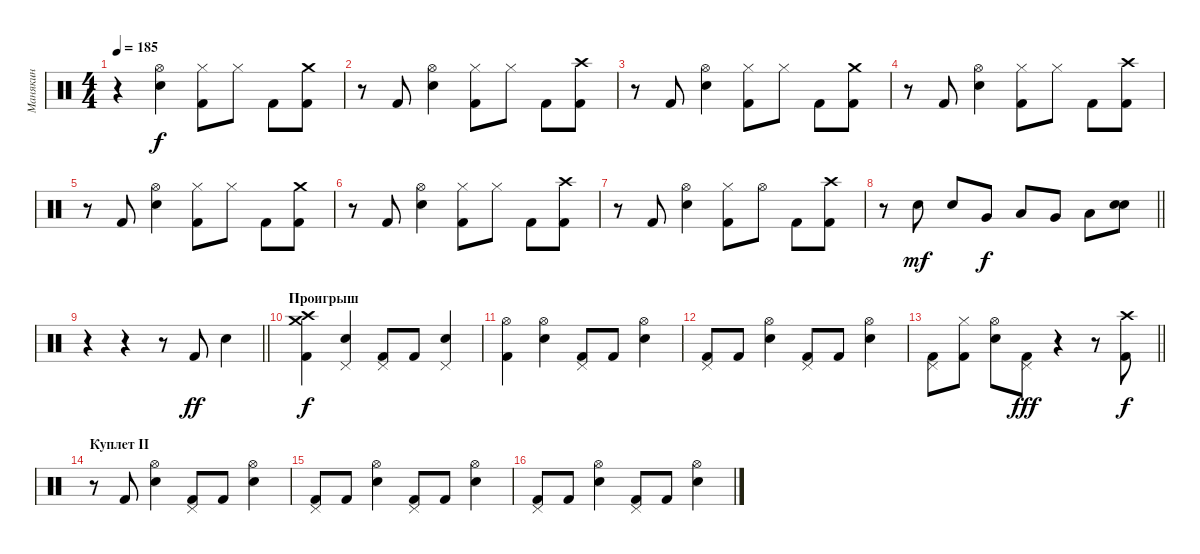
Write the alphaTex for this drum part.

\track ("Манякин" "Манякин") {instrument percussion}
\staff {score}
\articulation defaults
\ts (4 4)
\tempo 185
\clef neutral
\ks c
r.4{dy mf} ("Hi-Hat (open)" "Electric Snare (hit)").4{dy f} ("Hi-Hat (closed)" "Kick (hit) 2").8 "Hi-Hat (closed)".8 "Kick (hit) 2".8 ("Crash medium (hit)" "Kick (hit) 2").8 |
r.8 "Kick (hit) 2".8 ("Hi-Hat (open)" "Electric Snare (hit)").4 ("Hi-Hat (closed)" "Kick (hit) 2").8 "Hi-Hat (closed)".8 "Kick (hit) 2".8 ("Crash high (hit)" "Kick (hit) 2").8 |
r.8 "Kick (hit) 2".8 ("Hi-Hat (open)" "Electric Snare (hit)").4 ("Hi-Hat (closed)" "Kick (hit) 2").8 "Hi-Hat (closed)".8 "Kick (hit) 2".8 ("Crash medium (hit)" "Kick (hit) 2").8 |
r.8 "Kick (hit) 2".8 ("Hi-Hat (open)" "Electric Snare (hit)").4 ("Hi-Hat (closed)" "Kick (hit) 2").8 "Hi-Hat (closed)".8 "Kick (hit) 2".8 ("Crash high (hit)" "Kick (hit) 2").8 |
r.8 "Kick (hit) 2".8 ("Hi-Hat (open)" "Electric Snare (hit)").4 ("Hi-Hat (closed)" "Kick (hit) 2").8 "Hi-Hat (closed)".8 "Kick (hit) 2".8 ("Crash medium (hit)" "Kick (hit) 2").8 |
r.8 "Kick (hit) 2".8 ("Hi-Hat (open)" "Electric Snare (hit)").4 ("Hi-Hat (closed)" "Kick (hit) 2").8 "Hi-Hat (closed)".8 "Kick (hit) 2".8 ("Crash high (hit)" "Kick (hit) 2").8 |
r.8 "Kick (hit) 2".8 ("Hi-Hat (open)" "Electric Snare (hit)").4 ("Hi-Hat (closed)" "Kick (hit) 2").8 "Hi-Hat (open)".8 "Kick (hit) 2".8 ("Crash high (hit)" "Kick (hit) 2").8 |
\barLineRight lightlight
r.8 "Electric Snare (hit)".8{dy mf} "Electric Snare (hit)".8 "Very Low Tom (hit)".8{dy f} "Low Tom (hit)".8 "Very Low Tom (hit)".8 "Low Floor Tom (hit)".8 ("Electric Snare (hit)" "Electric Snare (hit)").8 |
\barLineRight lightlight
r.4 r.4 r.8 "Kick (hit) 2".8{dy ff} "Electric Snare (hit)".4 |
\section ("" "Проигрыш")
("Crash high (hit)" "Crash medium (hit)" "Kick (hit) 2").4{dy f} ("Pedal Hi-Hat (hit)" "Electric Snare (hit)").4 ("Pedal Hi-Hat (hit)" "Kick (hit) 2").8 "Kick (hit) 2".8 ("Pedal Hi-Hat (hit)" "Electric Snare (hit)").4 |
("Hi-Hat (open)" "Kick (hit) 2").4 ("Hi-Hat (open)" "Electric Snare (hit)").4 ("Pedal Hi-Hat (hit)" "Kick (hit) 2").8 "Kick (hit) 2".8 ("Hi-Hat (open)" "Electric Snare (hit)").4 |
("Pedal Hi-Hat (hit)" "Kick (hit) 2").8 "Kick (hit) 2".8 ("Hi-Hat (open)" "Electric Snare (hit)").4 ("Pedal Hi-Hat (hit)" "Kick (hit) 2").8 "Kick (hit) 2".8 ("Hi-Hat (open)" "Electric Snare (hit)").4 |
\barLineRight lightlight
("Pedal Hi-Hat (hit)" "Kick (hit) 2").8 ("Hi-Hat (closed)" "Kick (hit) 2").8 ("Hi-Hat (open)" "Electric Snare (hit)").8 ("Pedal Hi-Hat (hit)" "Kick (hit) 2").8{dy fff} r.4 r.8 ("Crash high (hit)" "Kick (hit) 2").8{dy f} |
\section ("" "Куплет II")
r.8 "Kick (hit) 2".8 ("Hi-Hat (open)" "Electric Snare (hit)").4 ("Pedal Hi-Hat (hit)" "Kick (hit) 2").8 "Kick (hit) 2".8 ("Hi-Hat (open)" "Electric Snare (hit)").4 |
("Pedal Hi-Hat (hit)" "Kick (hit) 2").8 "Kick (hit) 2".8 ("Hi-Hat (open)" "Electric Snare (hit)").4 ("Pedal Hi-Hat (hit)" "Kick (hit) 2").8 "Kick (hit) 2".8 ("Hi-Hat (open)" "Electric Snare (hit)").4 |
("Pedal Hi-Hat (hit)" "Kick (hit) 2").8 "Kick (hit) 2".8 ("Hi-Hat (open)" "Electric Snare (hit)").4 ("Pedal Hi-Hat (hit)" "Kick (hit) 2").8 "Kick (hit) 2".8 ("Hi-Hat (open)" "Electric Snare (hit)").4
